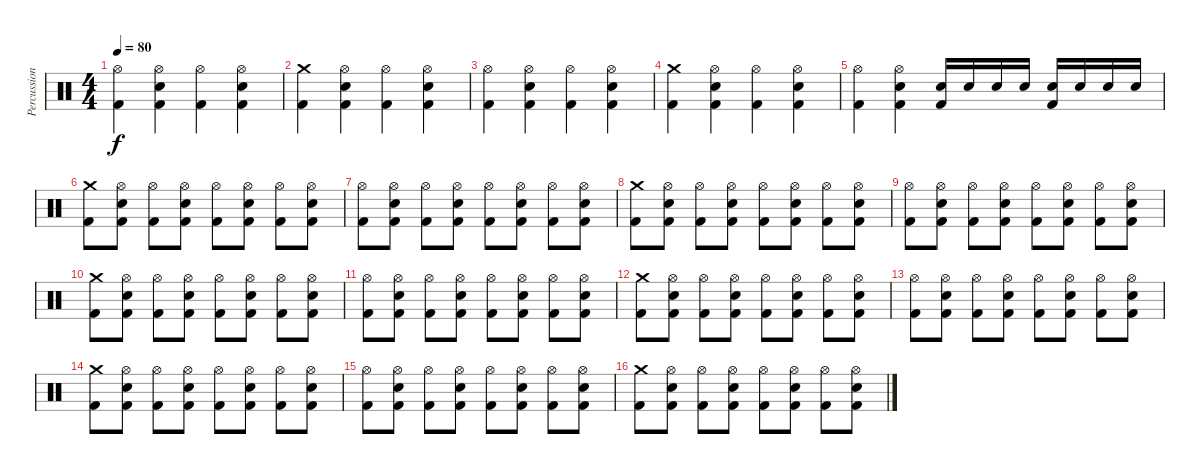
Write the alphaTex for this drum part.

\track ("Percussion" "Percussion") {instrument percussion}
\staff {score}
\articulation defaults
\ts (4 4)
\tempo 80
\clef neutral
\ks c
("Hi-Hat (open)" "Kick (hit) 2").4{dy f} ("Hi-Hat (open)" "Electric Snare (hit)" "Kick (hit) 2").4 ("Hi-Hat (open)" "Kick (hit) 2").4 ("Hi-Hat (open)" "Electric Snare (hit)" "Kick (hit) 2").4 |
("Crash medium (hit)" "Kick (hit) 2").4 ("Hi-Hat (open)" "Electric Snare (hit)" "Kick (hit) 2").4 ("Hi-Hat (open)" "Kick (hit) 2").4 ("Hi-Hat (open)" "Electric Snare (hit)" "Kick (hit) 2").4 |
("Hi-Hat (open)" "Kick (hit) 2").4 ("Hi-Hat (open)" "Electric Snare (hit)" "Kick (hit) 2").4 ("Hi-Hat (open)" "Kick (hit) 2").4 ("Hi-Hat (open)" "Electric Snare (hit)" "Kick (hit) 2").4 |
("Crash medium (hit)" "Kick (hit) 2").4 ("Hi-Hat (open)" "Electric Snare (hit)" "Kick (hit) 2").4 ("Hi-Hat (open)" "Kick (hit) 2").4 ("Hi-Hat (open)" "Electric Snare (hit)" "Kick (hit) 2").4 |
("Hi-Hat (open)" "Kick (hit) 2").4 ("Hi-Hat (open)" "Electric Snare (hit)" "Kick (hit) 2").4 ("Electric Snare (hit)" "Kick (hit) 2").16 "Electric Snare (hit)".16 "Electric Snare (hit)".16 "Electric Snare (hit)".16 ("Electric Snare (hit)" "Kick (hit) 2").16 "Electric Snare (hit)".16 "Electric Snare (hit)".16 "Electric Snare (hit)".16 |
("Crash medium (hit)" "Kick (hit) 2").8 ("Hi-Hat (open)" "Electric Snare (hit)" "Kick (hit) 2").8 ("Hi-Hat (open)" "Kick (hit) 2").8 ("Hi-Hat (open)" "Electric Snare (hit)" "Kick (hit) 2").8 ("Hi-Hat (open)" "Kick (hit) 2").8 ("Hi-Hat (open)" "Electric Snare (hit)" "Kick (hit) 2").8 ("Hi-Hat (open)" "Kick (hit) 2").8 ("Hi-Hat (open)" "Electric Snare (hit)" "Kick (hit) 2").8 |
("Hi-Hat (open)" "Kick (hit) 2").8 ("Hi-Hat (open)" "Electric Snare (hit)" "Kick (hit) 2").8 ("Hi-Hat (open)" "Kick (hit) 2").8 ("Hi-Hat (open)" "Electric Snare (hit)" "Kick (hit) 2").8 ("Hi-Hat (open)" "Kick (hit) 2").8 ("Hi-Hat (open)" "Electric Snare (hit)" "Kick (hit) 2").8 ("Hi-Hat (open)" "Kick (hit) 2").8 ("Hi-Hat (open)" "Electric Snare (hit)" "Kick (hit) 2").8 |
("Crash medium (hit)" "Kick (hit) 2").8 ("Hi-Hat (open)" "Electric Snare (hit)" "Kick (hit) 2").8 ("Hi-Hat (open)" "Kick (hit) 2").8 ("Hi-Hat (open)" "Electric Snare (hit)" "Kick (hit) 2").8 ("Hi-Hat (open)" "Kick (hit) 2").8 ("Hi-Hat (open)" "Electric Snare (hit)" "Kick (hit) 2").8 ("Hi-Hat (open)" "Kick (hit) 2").8 ("Hi-Hat (open)" "Electric Snare (hit)" "Kick (hit) 2").8 |
("Hi-Hat (open)" "Kick (hit) 2").8 ("Hi-Hat (open)" "Electric Snare (hit)" "Kick (hit) 2").8 ("Hi-Hat (open)" "Kick (hit) 2").8 ("Hi-Hat (open)" "Electric Snare (hit)" "Kick (hit) 2").8 ("Hi-Hat (open)" "Kick (hit) 2").8 ("Hi-Hat (open)" "Electric Snare (hit)" "Kick (hit) 2").8 ("Hi-Hat (open)" "Kick (hit) 2").8 ("Hi-Hat (open)" "Electric Snare (hit)" "Kick (hit) 2").8 |
("Crash medium (hit)" "Kick (hit) 2").8 ("Hi-Hat (open)" "Electric Snare (hit)" "Kick (hit) 2").8 ("Hi-Hat (open)" "Kick (hit) 2").8 ("Hi-Hat (open)" "Electric Snare (hit)" "Kick (hit) 2").8 ("Hi-Hat (open)" "Kick (hit) 2").8 ("Hi-Hat (open)" "Electric Snare (hit)" "Kick (hit) 2").8 ("Hi-Hat (open)" "Kick (hit) 2").8 ("Hi-Hat (open)" "Electric Snare (hit)" "Kick (hit) 2").8 |
("Hi-Hat (open)" "Kick (hit) 2").8 ("Hi-Hat (open)" "Electric Snare (hit)" "Kick (hit) 2").8 ("Hi-Hat (open)" "Kick (hit) 2").8 ("Hi-Hat (open)" "Electric Snare (hit)" "Kick (hit) 2").8 ("Hi-Hat (open)" "Kick (hit) 2").8 ("Hi-Hat (open)" "Electric Snare (hit)" "Kick (hit) 2").8 ("Hi-Hat (open)" "Kick (hit) 2").8 ("Hi-Hat (open)" "Electric Snare (hit)" "Kick (hit) 2").8 |
("Crash medium (hit)" "Kick (hit) 2").8 ("Hi-Hat (open)" "Electric Snare (hit)" "Kick (hit) 2").8 ("Hi-Hat (open)" "Kick (hit) 2").8 ("Hi-Hat (open)" "Electric Snare (hit)" "Kick (hit) 2").8 ("Hi-Hat (open)" "Kick (hit) 2").8 ("Hi-Hat (open)" "Electric Snare (hit)" "Kick (hit) 2").8 ("Hi-Hat (open)" "Kick (hit) 2").8 ("Hi-Hat (open)" "Electric Snare (hit)" "Kick (hit) 2").8 |
("Hi-Hat (open)" "Kick (hit) 2").8 ("Hi-Hat (open)" "Electric Snare (hit)" "Kick (hit) 2").8 ("Hi-Hat (open)" "Kick (hit) 2").8 ("Hi-Hat (open)" "Electric Snare (hit)" "Kick (hit) 2").8 ("Hi-Hat (open)" "Kick (hit) 2").8 ("Hi-Hat (open)" "Electric Snare (hit)" "Kick (hit) 2").8 ("Hi-Hat (open)" "Kick (hit) 2").8 ("Hi-Hat (open)" "Electric Snare (hit)" "Kick (hit) 2").8 |
("Crash medium (hit)" "Kick (hit) 2").8 ("Hi-Hat (open)" "Electric Snare (hit)" "Kick (hit) 2").8 ("Hi-Hat (open)" "Kick (hit) 2").8 ("Hi-Hat (open)" "Electric Snare (hit)" "Kick (hit) 2").8 ("Hi-Hat (open)" "Kick (hit) 2").8 ("Hi-Hat (open)" "Electric Snare (hit)" "Kick (hit) 2").8 ("Hi-Hat (open)" "Kick (hit) 2").8 ("Hi-Hat (open)" "Electric Snare (hit)" "Kick (hit) 2").8 |
("Hi-Hat (open)" "Kick (hit) 2").8 ("Hi-Hat (open)" "Electric Snare (hit)" "Kick (hit) 2").8 ("Hi-Hat (open)" "Kick (hit) 2").8 ("Hi-Hat (open)" "Electric Snare (hit)" "Kick (hit) 2").8 ("Hi-Hat (open)" "Kick (hit) 2").8 ("Hi-Hat (open)" "Electric Snare (hit)" "Kick (hit) 2").8 ("Hi-Hat (open)" "Kick (hit) 2").8 ("Hi-Hat (open)" "Electric Snare (hit)" "Kick (hit) 2").8 |
("Crash medium (hit)" "Kick (hit) 2").8 ("Hi-Hat (open)" "Electric Snare (hit)" "Kick (hit) 2").8 ("Hi-Hat (open)" "Kick (hit) 2").8 ("Hi-Hat (open)" "Electric Snare (hit)" "Kick (hit) 2").8 ("Hi-Hat (open)" "Kick (hit) 2").8 ("Hi-Hat (open)" "Electric Snare (hit)" "Kick (hit) 2").8 ("Hi-Hat (open)" "Kick (hit) 2").8 ("Hi-Hat (open)" "Electric Snare (hit)" "Kick (hit) 2").8
